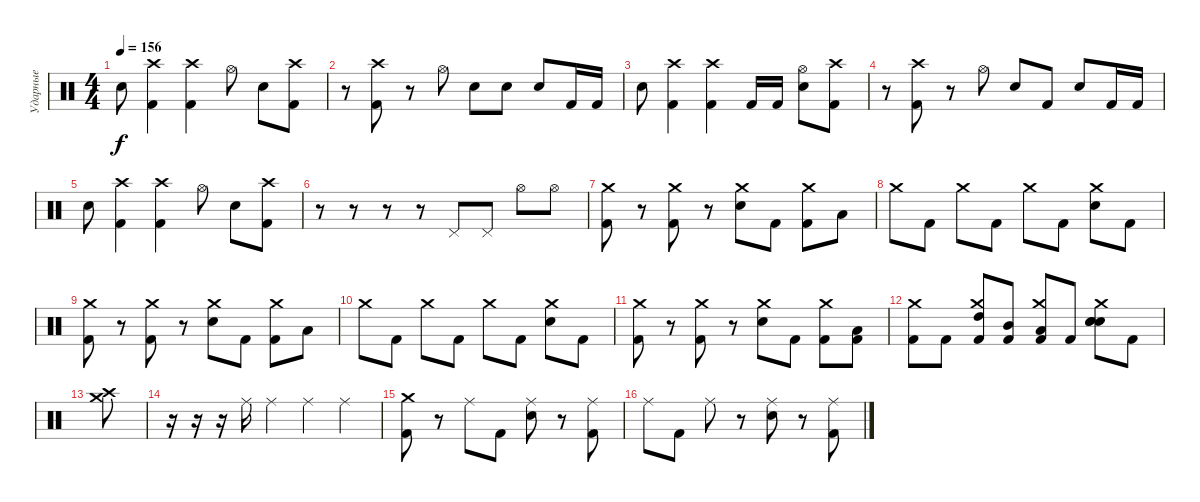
\track ("Ударные" "Ударные") {instrument percussion}
\staff {score}
\articulation defaults
\ts (4 4)
\tempo 156
\clef neutral
\ks c "Electric Snare (hit)".8{dy f}
("Crash high (hit)" "Kick (hit) 2").4 ("Crash high (hit)" "Kick (hit) 2").4 "Hi-Hat (open)".8 "Electric Snare (hit)".8 ("Crash high (hit)" "Kick (hit) 2").8 |
r.8 ("Crash high (hit)" "Kick (hit) 2").8 r.8 "Hi-Hat (open)".8 "Electric Snare (hit)".8 "Electric Snare (hit)".8 "Electric Snare (hit)".8 "Kick (hit) 2".16 "Kick (hit) 2".16 |
"Electric Snare (hit)".8 ("Crash high (hit)" "Kick (hit) 2").4 ("Crash high (hit)" "Kick (hit) 2").4 "Kick (hit) 2".16 "Kick (hit) 2".16 ("Hi-Hat (open)" "Electric Snare (hit)").8 ("Crash high (hit)" "Kick (hit) 2").8 |
r.8 ("Crash high (hit)" "Kick (hit) 2").8 r.8 "Hi-Hat (open)".8 "Electric Snare (hit)".8 "Kick (hit) 2".8 "Electric Snare (hit)".8 "Kick (hit) 2".16 "Kick (hit) 2".16 |
"Electric Snare (hit)".8 ("Crash high (hit)" "Kick (hit) 2").4 ("Crash high (hit)" "Kick (hit) 2").4 "Hi-Hat (open)".8 "Electric Snare (hit)".8 ("Crash high (hit)" "Kick (hit) 2").8 |
r.8 r.8 r.8 r.8 "Pedal Hi-Hat (hit)".8 "Pedal Hi-Hat (hit)".8 "Hi-Hat (open)".8 "Hi-Hat (open)".8 |
("Crash medium (hit)" "Kick (hit) 2").8 r.8 ("Crash medium (hit)" "Kick (hit) 2").8 r.8 ("Crash medium (hit)" "Electric Snare (hit)").8 "Kick (hit) 2".8 ("Crash medium (hit)" "Kick (hit) 2").8 "Low Tom (hit)".8 |
"Crash medium (hit)".8 "Kick (hit) 2".8 "Crash medium (hit)".8 "Kick (hit) 2".8 "Crash medium (hit)".8 "Kick (hit) 2".8 ("Crash medium (hit)" "Electric Snare (hit)").8 "Kick (hit) 2".8 |
("Crash medium (hit)" "Kick (hit) 2").8 r.8 ("Crash medium (hit)" "Kick (hit) 2").8 r.8 ("Crash medium (hit)" "Electric Snare (hit)").8 "Kick (hit) 2".8 ("Crash medium (hit)" "Kick (hit) 2").8 "Low Tom (hit)".8 |
"Crash medium (hit)".8 "Kick (hit) 2".8 "Crash medium (hit)".8 "Kick (hit) 2".8 "Crash medium (hit)".8 "Kick (hit) 2".8 ("Crash medium (hit)" "Electric Snare (hit)").8 "Kick (hit) 2".8 |
("Crash medium (hit)" "Kick (hit) 2").8 r.8 ("Crash medium (hit)" "Kick (hit) 2").8 r.8 ("Crash medium (hit)" "Electric Snare (hit)").8 "Kick (hit) 2".8 ("Crash medium (hit)" "Kick (hit) 2").8 ("Kick (hit) 2" "Low Tom (hit)").8 |
("Crash medium (hit)" "Kick (hit) 2").8 "Kick (hit) 2".8 ("Crash medium (hit)" "Kick (hit) 2" "High Tom (hit)").8 ("Kick (hit) 2" "Mid Tom (hit)").8 ("Crash medium (hit)" "Kick (hit) 2" "Low Tom (hit)").8 "Kick (hit) 2".8 ("Crash medium (hit)" "Electric Snare (hit)" "Electric Snare (hit)" "Electric Snare (hit)").8 "Kick (hit) 2".8 |
("Crash high (hit)" "Crash medium (hit)").8 |
r.16 r.16 r.16 "Ride (middle)".16 "Ride (middle)".4 "Ride (middle)".4 "Ride (middle)".4 |
("Crash medium (hit)" "Kick (hit) 2").8 r.8 "Ride (middle)".8 "Kick (hit) 2".8 ("Ride (middle)" "Electric Snare (hit)").8 r.8 ("Ride (middle)" "Kick (hit) 2").8 |
"Ride (middle)".8 "Kick (hit) 2".8 "Ride (middle)".8 r.8 ("Ride (middle)" "Electric Snare (hit)").8 r.8 ("Ride (middle)" "Kick (hit) 2").8
